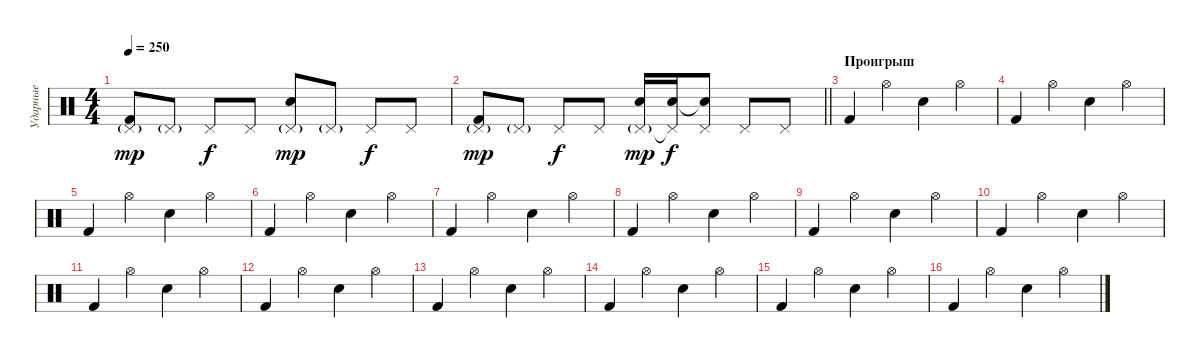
\track ("Ударные" "Ударные") {instrument percussion}
\staff {score}
\articulation defaults
\ts (4 4)
\tempo 250
\clef neutral
\ks c
("Pedal Hi-Hat (hit)"{g} "Kick (hit) 2").8{dy mp} "Pedal Hi-Hat (hit)"{g}.8 "Pedal Hi-Hat (hit)".8{dy f} "Pedal Hi-Hat (hit)".8 ("Pedal Hi-Hat (hit)"{g} "Electric Snare (hit)").8{dy mp} "Pedal Hi-Hat (hit)"{g}.8 "Pedal Hi-Hat (hit)".8{dy f} "Pedal Hi-Hat (hit)".8 |
\barLineRight lightlight
("Pedal Hi-Hat (hit)"{g} "Kick (hit) 2").8{dy mp} "Pedal Hi-Hat (hit)"{g}.8 "Pedal Hi-Hat (hit)".8{dy f} "Pedal Hi-Hat (hit)".8 ("Pedal Hi-Hat (hit)"{g} "Electric Snare (hit)").16{dy mp} ("Pedal Hi-Hat (hit)"{t} "Electric Snare (hit)").16{dy f} ("Pedal Hi-Hat (hit)" "Snare (hit)"{t}).8 "Pedal Hi-Hat (hit)".8 "Pedal Hi-Hat (hit)".8 |
\section ("" "Проигрыш")
"Kick (hit) 2".4 "Hi-Hat (open)".4 "Snare (hit) 2".4 "Hi-Hat (open)".4 |
"Kick (hit) 2".4 "Hi-Hat (open)".4 "Snare (hit) 2".4 "Hi-Hat (open)".4 |
"Kick (hit) 2".4 "Hi-Hat (open)".4 "Snare (hit) 2".4 "Hi-Hat (open)".4 |
"Kick (hit) 2".4 "Hi-Hat (open)".4 "Snare (hit) 2".4 "Hi-Hat (open)".4 |
"Kick (hit) 2".4 "Hi-Hat (open)".4 "Snare (hit) 2".4 "Hi-Hat (open)".4 |
"Kick (hit) 2".4 "Hi-Hat (open)".4 "Snare (hit) 2".4 "Hi-Hat (open)".4 |
"Kick (hit) 2".4 "Hi-Hat (open)".4 "Snare (hit) 2".4 "Hi-Hat (open)".4 |
"Kick (hit) 2".4 "Hi-Hat (open)".4 "Snare (hit) 2".4 "Hi-Hat (open)".4 |
"Kick (hit) 2".4 "Hi-Hat (open)".4 "Snare (hit) 2".4 "Hi-Hat (open)".4 |
"Kick (hit) 2".4 "Hi-Hat (open)".4 "Snare (hit) 2".4 "Hi-Hat (open)".4 |
"Kick (hit) 2".4 "Hi-Hat (open)".4 "Snare (hit) 2".4 "Hi-Hat (open)".4 |
"Kick (hit) 2".4 "Hi-Hat (open)".4 "Snare (hit) 2".4 "Hi-Hat (open)".4 |
"Kick (hit) 2".4 "Hi-Hat (open)".4 "Snare (hit) 2".4 "Hi-Hat (open)".4 |
"Kick (hit) 2".4 "Hi-Hat (open)".4 "Snare (hit) 2".4 "Hi-Hat (open)".4
